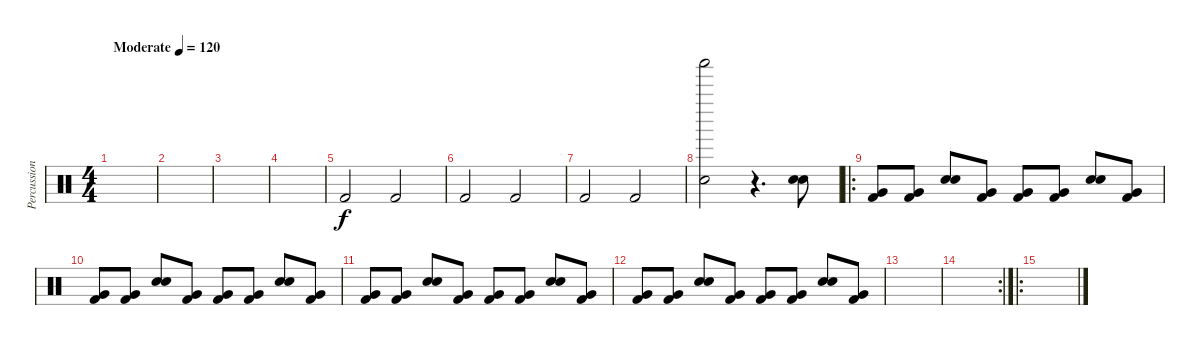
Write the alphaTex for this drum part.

\track ("Percussion" "Percussion") {instrument percussion}
\staff {score}
\articulation defaults
\ts (4 4)
\tempo (120 "Moderate")
\clef neutral
\ks c
|
|
|
|
"Kick (hit) 2".2 "Kick (hit) 2".2 |
"Kick (hit) 2".2 "Kick (hit) 2".2 |
"Kick (hit) 2".2 "Kick (hit) 2".2 |
("Shaker (hit)" "Snare (hit) 2").2 r.4{d} ("Electric Snare (hit)" "Snare (hit) 2").8 |
\ro
("Very Low Tom (hit)" "Kick (hit) 2").8 ("Very Low Tom (hit)" "Kick (hit) 2").8 ("Snare (hit) 2" "Electric Snare (hit)").8 ("Very Low Tom (hit)" "Kick (hit) 2").8 ("Very Low Tom (hit)" "Kick (hit) 2").8 ("Very Low Tom (hit)" "Kick (hit) 2").8 ("Snare (hit) 2" "Electric Snare (hit)").8 ("Very Low Tom (hit)" "Kick (hit) 2").8 |
("Very Low Tom (hit)" "Kick (hit) 2").8 ("Very Low Tom (hit)" "Kick (hit) 2").8 ("Snare (hit) 2" "Electric Snare (hit)").8 ("Very Low Tom (hit)" "Kick (hit) 2").8 ("Very Low Tom (hit)" "Kick (hit) 2").8 ("Very Low Tom (hit)" "Kick (hit) 2").8 ("Snare (hit) 2" "Electric Snare (hit)").8 ("Very Low Tom (hit)" "Kick (hit) 2").8 |
("Very Low Tom (hit)" "Kick (hit) 2").8 ("Very Low Tom (hit)" "Kick (hit) 2").8 ("Snare (hit) 2" "Electric Snare (hit)").8 ("Very Low Tom (hit)" "Kick (hit) 2").8 ("Very Low Tom (hit)" "Kick (hit) 2").8 ("Very Low Tom (hit)" "Kick (hit) 2").8 ("Snare (hit) 2" "Electric Snare (hit)").8 ("Very Low Tom (hit)" "Kick (hit) 2").8 |
("Very Low Tom (hit)" "Kick (hit) 2").8 ("Very Low Tom (hit)" "Kick (hit) 2").8 ("Snare (hit) 2" "Electric Snare (hit)").8 ("Very Low Tom (hit)" "Kick (hit) 2").8 ("Very Low Tom (hit)" "Kick (hit) 2").8 ("Very Low Tom (hit)" "Kick (hit) 2").8 ("Snare (hit) 2" "Electric Snare (hit)").8 ("Very Low Tom (hit)" "Kick (hit) 2").8 |
|
\rc 2
|
\ro
